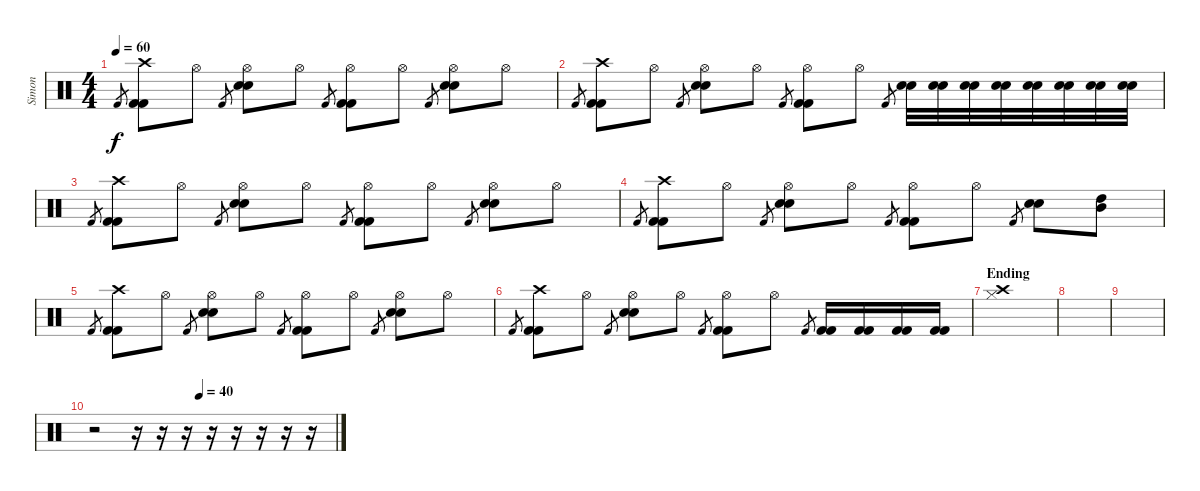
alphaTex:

\track ("Simon" "Simon") {instrument percussion}
\staff {score}
\articulation defaults
\ts (4 4)
\tempo 60
\clef neutral
\ks c "Kick (hit) 2".8{gr dy f}
("Crash high (hit)" "Kick (hit) 2" "Kick (hit) 2").8 "Hi-Hat (open)".8 "Kick (hit) 2".8{gr} ("Hi-Hat (open)" "Electric Snare (hit)" "Electric Snare (hit)").8 "Hi-Hat (open)".8 "Kick (hit) 2".8{gr} ("Hi-Hat (open)" "Kick (hit) 2" "Kick (hit) 2").8 "Hi-Hat (open)".8 "Kick (hit) 2".8{gr} ("Hi-Hat (open)" "Electric Snare (hit)" "Electric Snare (hit)").8 "Hi-Hat (open)".8 |
"Kick (hit) 2".8{gr} ("Crash high (hit)" "Kick (hit) 2" "Kick (hit) 2").8 "Hi-Hat (open)".8 "Kick (hit) 2".8{gr} ("Hi-Hat (open)" "Electric Snare (hit)" "Electric Snare (hit)").8 "Hi-Hat (open)".8 "Kick (hit) 2".8{gr} ("Hi-Hat (open)" "Kick (hit) 2" "Kick (hit) 2").8 "Hi-Hat (open)".8 "Kick (hit) 2".8{gr} ("Electric Snare (hit)" "Electric Snare (hit)").32 ("Electric Snare (hit)" "Electric Snare (hit)").32 ("Electric Snare (hit)" "Electric Snare (hit)").32 ("Electric Snare (hit)" "Electric Snare (hit)").32 ("Electric Snare (hit)" "Electric Snare (hit)").32 ("Electric Snare (hit)" "Electric Snare (hit)").32 ("Electric Snare (hit)" "Electric Snare (hit)").32 ("Electric Snare (hit)" "Electric Snare (hit)").32 |
"Kick (hit) 2".8{gr} ("Crash high (hit)" "Kick (hit) 2" "Kick (hit) 2").8 "Hi-Hat (open)".8 "Kick (hit) 2".8{gr} ("Hi-Hat (open)" "Electric Snare (hit)" "Electric Snare (hit)").8 "Hi-Hat (open)".8 "Kick (hit) 2".8{gr} ("Hi-Hat (open)" "Kick (hit) 2" "Kick (hit) 2").8 "Hi-Hat (open)".8 "Kick (hit) 2".8{gr} ("Hi-Hat (open)" "Electric Snare (hit)" "Electric Snare (hit)").8 "Hi-Hat (open)".8 |
"Kick (hit) 2".8{gr} ("Crash high (hit)" "Kick (hit) 2" "Kick (hit) 2").8 "Hi-Hat (open)".8 "Kick (hit) 2".8{gr} ("Hi-Hat (open)" "Electric Snare (hit)" "Electric Snare (hit)").8 "Hi-Hat (open)".8 "Kick (hit) 2".8{gr} ("Hi-Hat (open)" "Kick (hit) 2" "Kick (hit) 2").8 "Hi-Hat (open)".8 "Kick (hit) 2".8{gr} ("Electric Snare (hit)" "Electric Snare (hit)").8 ("High Tom (hit)" "Mid Tom (hit)").8 |
"Kick (hit) 2".8{gr} ("Crash high (hit)" "Kick (hit) 2" "Kick (hit) 2").8 "Hi-Hat (open)".8 "Kick (hit) 2".8{gr} ("Hi-Hat (open)" "Electric Snare (hit)" "Electric Snare (hit)").8 "Hi-Hat (open)".8 "Kick (hit) 2".8{gr} ("Hi-Hat (open)" "Kick (hit) 2" "Kick (hit) 2").8 "Hi-Hat (open)".8 "Kick (hit) 2".8{gr} ("Hi-Hat (open)" "Electric Snare (hit)" "Electric Snare (hit)").8 "Hi-Hat (open)".8 |
"Kick (hit) 2".8{gr} ("Crash high (hit)" "Kick (hit) 2" "Kick (hit) 2").8 "Hi-Hat (open)".8 "Kick (hit) 2".8{gr} ("Hi-Hat (open)" "Electric Snare (hit)" "Electric Snare (hit)").8 "Hi-Hat (open)".8 "Kick (hit) 2".8{gr} ("Hi-Hat (open)" "Kick (hit) 2" "Kick (hit) 2").8 "Hi-Hat (open)".8 "Kick (hit) 2".8{gr} ("Kick (hit) 2" "Kick (hit) 2").16 ("Kick (hit) 2" "Kick (hit) 2").16 ("Kick (hit) 2" "Kick (hit) 2").16 ("Kick (hit) 2" "Kick (hit) 2").16 |
\section ("" "Ending")
("Crash high (hit)" "Hi-Hat (closed)").1 |
|
|
\tempo (40 0.4375)
r.2 r.16 r.16 r.16 r.16 r.16 r.16 r.16 r.16
